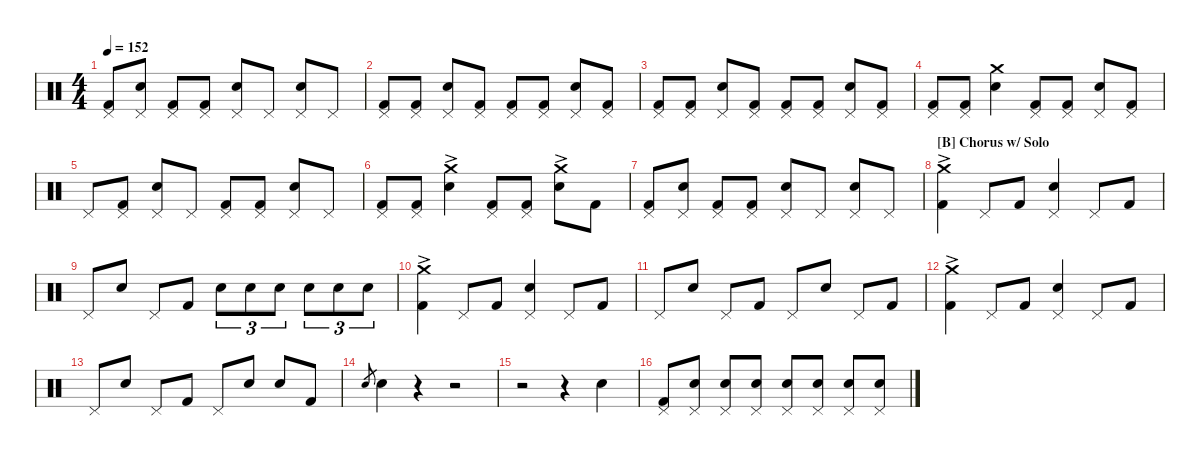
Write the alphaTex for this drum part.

\hideDynamics
\bracketExtendMode nobrackets
\singleTrackTrackNamePolicy hidden
\multiTrackTrackNamePolicy hidden
\firstSystemTrackNameMode fullname
\firstSystemTrackNameOrientation horizontal
\otherSystemsTrackNameOrientation horizontal
\track ("Drumkit" "Drums") {instrument percussion}
\staff {score}
\articulation defaults
\ts (4 4)
\tempo 152
\clef neutral
\ks c
("Pedal Hi-Hat (hit)" "Kick (hit) 2").8{dy f beam Up} ("Pedal Hi-Hat (hit)" "Snare (hit) 2").8{beam Up} ("Pedal Hi-Hat (hit)" "Kick (hit) 2").8{beam Up} ("Pedal Hi-Hat (hit)" "Kick (hit) 2").8{beam Up} ("Pedal Hi-Hat (hit)" "Snare (hit) 2").8{beam Up} "Pedal Hi-Hat (hit)".8{beam Up} ("Pedal Hi-Hat (hit)" "Snare (hit) 2").8{beam Up} "Pedal Hi-Hat (hit)".8{beam Up} |
("Pedal Hi-Hat (hit)" "Kick (hit) 2").8{beam Up} ("Pedal Hi-Hat (hit)" "Kick (hit) 2").8{beam Up} ("Pedal Hi-Hat (hit)" "Snare (hit) 2").8{beam Up} ("Pedal Hi-Hat (hit)" "Kick (hit) 2").8{beam Up} ("Pedal Hi-Hat (hit)" "Kick (hit) 2").8{beam Up} ("Pedal Hi-Hat (hit)" "Kick (hit) 2").8{beam Up} ("Pedal Hi-Hat (hit)" "Snare (hit) 2").8{beam Up} ("Pedal Hi-Hat (hit)" "Kick (hit) 2").8{beam Up} |
("Pedal Hi-Hat (hit)" "Kick (hit) 2").8{beam Up} ("Pedal Hi-Hat (hit)" "Kick (hit) 2").8{beam Up} ("Pedal Hi-Hat (hit)" "Snare (hit) 2").8{beam Up} ("Pedal Hi-Hat (hit)" "Kick (hit) 2").8{beam Up} ("Pedal Hi-Hat (hit)" "Kick (hit) 2").8{beam Up} ("Pedal Hi-Hat (hit)" "Kick (hit) 2").8{beam Up} ("Pedal Hi-Hat (hit)" "Snare (hit) 2").8{beam Up} ("Pedal Hi-Hat (hit)" "Kick (hit) 2").8{beam Up} |
("Pedal Hi-Hat (hit)" "Kick (hit) 2").8{beam Up} ("Pedal Hi-Hat (hit)" "Kick (hit) 2").8{beam Up} ("Crash medium (hit)" "Snare (hit) 2").4{beam Down} ("Pedal Hi-Hat (hit)" "Kick (hit) 2").8{beam Up} ("Pedal Hi-Hat (hit)" "Kick (hit) 2").8{beam Up} ("Pedal Hi-Hat (hit)" "Snare (hit) 2").8{beam Up} ("Pedal Hi-Hat (hit)" "Kick (hit) 2").8{beam Up} |
"Pedal Hi-Hat (hit)".8{beam Up} ("Pedal Hi-Hat (hit)" "Kick (hit) 2").8{beam Up} ("Pedal Hi-Hat (hit)" "Snare (hit) 2").8{beam Up} "Pedal Hi-Hat (hit)".8{beam Up} ("Pedal Hi-Hat (hit)" "Kick (hit) 2").8{beam Up} ("Pedal Hi-Hat (hit)" "Kick (hit) 2").8{beam Up} ("Pedal Hi-Hat (hit)" "Snare (hit) 2").8{beam Up} "Pedal Hi-Hat (hit)".8{beam Up} |
("Pedal Hi-Hat (hit)" "Kick (hit) 2").8{beam Up} ("Pedal Hi-Hat (hit)" "Kick (hit) 2").8{beam Up} ("Crash medium (hit)"{ac} "Snare (hit) 2").4{beam Down} ("Pedal Hi-Hat (hit)" "Kick (hit) 2").8{beam Up} ("Pedal Hi-Hat (hit)" "Kick (hit) 2").8{beam Up} ("Crash medium (hit)"{ac} "Snare (hit) 2").8{beam Down} "Kick (hit) 2".8{beam Down} |
("Pedal Hi-Hat (hit)" "Kick (hit) 2").8{beam Up} ("Pedal Hi-Hat (hit)" "Snare (hit) 2").8{beam Up} ("Pedal Hi-Hat (hit)" "Kick (hit) 2").8{beam Up} ("Pedal Hi-Hat (hit)" "Kick (hit) 2").8{beam Up} ("Pedal Hi-Hat (hit)" "Snare (hit) 2").8{beam Up} "Pedal Hi-Hat (hit)".8{beam Up} ("Pedal Hi-Hat (hit)" "Snare (hit) 2").8{beam Up} "Pedal Hi-Hat (hit)".8{beam Up} |
\section ("B" "Chorus w/ Solo")
("Crash medium (hit)"{ac} "Kick (hit) 2").4{beam Down} "Pedal Hi-Hat (hit)".8{beam Up} "Kick (hit) 2".8{beam Up} ("Pedal Hi-Hat (hit)" "Snare (hit) 2").4{beam Up} "Pedal Hi-Hat (hit)".8{beam Up} "Kick (hit) 2".8{beam Up} |
"Pedal Hi-Hat (hit)".8{beam Up} "Snare (hit) 2".8{beam Up} "Pedal Hi-Hat (hit)".8{beam Up} "Kick (hit) 2".8{beam Up} "Snare (hit) 2".8{tu (3 2) beam Down} "Snare (hit) 2".8{tu (3 2) beam Down} "Snare (hit) 2".8{tu (3 2) beam Down} "Snare (hit) 2".8{tu (3 2) beam Down} "Snare (hit) 2".8{tu (3 2) beam Down} "Snare (hit) 2".8{tu (3 2) beam Down} |
("Crash medium (hit)"{ac} "Kick (hit) 2").4{beam Down} "Pedal Hi-Hat (hit)".8{beam Up} "Kick (hit) 2".8{beam Up} ("Pedal Hi-Hat (hit)" "Snare (hit) 2").4{beam Up} "Pedal Hi-Hat (hit)".8{beam Up} "Kick (hit) 2".8{beam Up} |
"Pedal Hi-Hat (hit)".8{beam Up} "Snare (hit) 2".8{beam Up} "Pedal Hi-Hat (hit)".8{beam Up} "Kick (hit) 2".8{beam Up} "Pedal Hi-Hat (hit)".8{beam Up} "Snare (hit) 2".8{beam Up} "Pedal Hi-Hat (hit)".8{beam Up} "Kick (hit) 2".8{beam Up} |
("Crash medium (hit)"{ac} "Kick (hit) 2").4{beam Down} "Pedal Hi-Hat (hit)".8{beam Up} "Kick (hit) 2".8{beam Up} ("Pedal Hi-Hat (hit)" "Snare (hit) 2").4{beam Up} "Pedal Hi-Hat (hit)".8{beam Up} "Kick (hit) 2".8{beam Up} |
"Pedal Hi-Hat (hit)".8{beam Up} "Snare (hit) 2".8{beam Up} "Pedal Hi-Hat (hit)".8{beam Up} "Kick (hit) 2".8{beam Up} "Pedal Hi-Hat (hit)".8{beam Up} "Snare (hit) 2".8{beam Up} "Snare (hit) 2".8{beam Up} "Kick (hit) 2".8{beam Up} |
"Snare (hit) 2".8{gr dy mf beam Up} "Snare (hit) 2".4{dy f beam Down} r.4{beam Down} r.2{beam Down} |
r.2{beam Down} r.4{beam Down} "Snare (hit) 2".4{beam Down} |
("Pedal Hi-Hat (hit)" "Kick (hit) 2").8{dy p beam Up} ("Pedal Hi-Hat (hit)" "Snare (hit) 2").8{beam Up} ("Pedal Hi-Hat (hit)" "Snare (hit) 2").8{beam Up} ("Pedal Hi-Hat (hit)" "Snare (hit) 2").8{beam Up} ("Pedal Hi-Hat (hit)" "Snare (hit) 2").8{beam Up} ("Pedal Hi-Hat (hit)" "Snare (hit) 2").8{beam Up} ("Pedal Hi-Hat (hit)" "Snare (hit) 2").8{dy mp beam Up} ("Pedal Hi-Hat (hit)" "Snare (hit) 2").8{beam Up}
